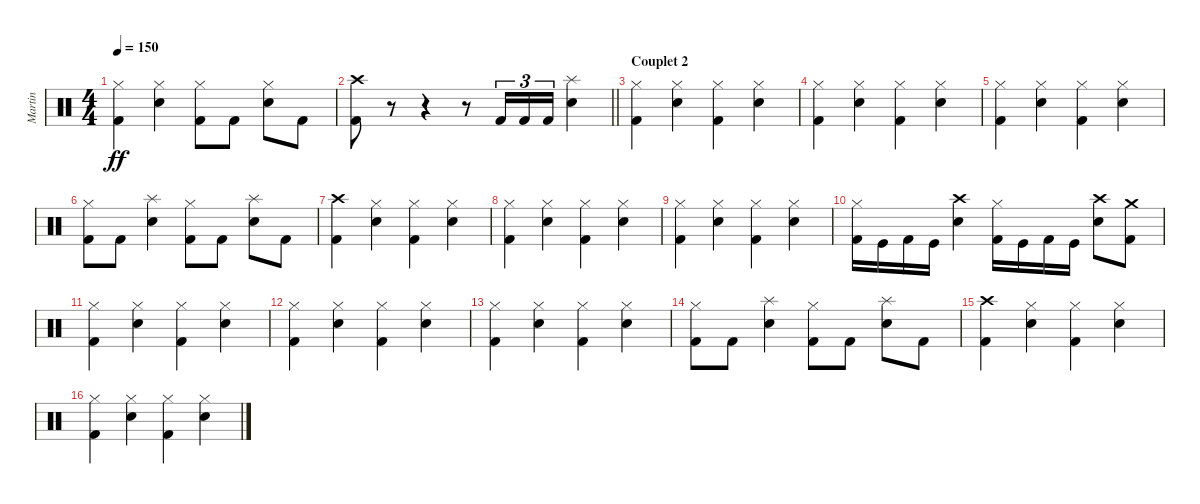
\track ("Martin" "Martin") {instrument percussion}
\staff {score}
\articulation defaults
\ts (4 4)
\tempo 150
\clef neutral
\ks c
("Hi-Hat (closed)" "Kick (hit) 2").4{dy ff} ("Hi-Hat (closed)" "Electric Snare (hit)").4 ("Hi-Hat (closed)" "Kick (hit) 2").8 "Kick (hit) 2".8 ("Hi-Hat (closed)" "Electric Snare (hit)").8 "Kick (hit) 2".8 |
\barLineRight lightlight
("Crash high (hit)" "Kick (hit) 2").8 r.8 r.4 r.8 "Kick (hit) 2".16{tu (3 2)} "Kick (hit) 2".16{tu (3 2)} "Kick (hit) 2".16{tu (3 2)} ("Splash (hit)" "Electric Snare (hit)").4 |
\section ("" "Couplet 2")
("Hi-Hat (closed)" "Kick (hit) 2").4 ("Hi-Hat (closed)" "Electric Snare (hit)").4 ("Hi-Hat (closed)" "Kick (hit) 2").4 ("Hi-Hat (closed)" "Electric Snare (hit)").4 |
("Hi-Hat (closed)" "Kick (hit) 2").4 ("Hi-Hat (closed)" "Electric Snare (hit)").4 ("Hi-Hat (closed)" "Kick (hit) 2").4 ("Hi-Hat (closed)" "Electric Snare (hit)").4 |
("Hi-Hat (closed)" "Kick (hit) 2").4 ("Hi-Hat (closed)" "Electric Snare (hit)").4 ("Hi-Hat (closed)" "Kick (hit) 2").4 ("Hi-Hat (closed)" "Electric Snare (hit)").4 |
("Hi-Hat (closed)" "Kick (hit) 2").8 "Kick (hit) 2".8 ("Splash (hit)" "Electric Snare (hit)").4 ("Hi-Hat (closed)" "Kick (hit) 2").8 "Kick (hit) 2".8 ("Splash (hit)" "Electric Snare (hit)").8 "Kick (hit) 2".8 |
("Crash high (hit)" "Kick (hit) 2").4 ("Hi-Hat (closed)" "Electric Snare (hit)").4 ("Hi-Hat (closed)" "Kick (hit) 2").4 ("Hi-Hat (closed)" "Electric Snare (hit)").4 |
("Hi-Hat (closed)" "Kick (hit) 2").4 ("Hi-Hat (closed)" "Electric Snare (hit)").4 ("Hi-Hat (closed)" "Kick (hit) 2").4 ("Hi-Hat (closed)" "Electric Snare (hit)").4 |
("Hi-Hat (closed)" "Kick (hit) 2").4 ("Hi-Hat (closed)" "Electric Snare (hit)").4 ("Hi-Hat (closed)" "Kick (hit) 2").4 ("Hi-Hat (closed)" "Electric Snare (hit)").4 |
("Hi-Hat (closed)" "Kick (hit) 2").16 "Kick (hit)".16 "Kick (hit) 2".16 "Kick (hit)".16 ("Crash high (hit)" "Electric Snare (hit)").4 ("Hi-Hat (closed)" "Kick (hit) 2").16 "Kick (hit)".16 "Kick (hit) 2".16 "Kick (hit)".16 ("Crash high (hit)" "Electric Snare (hit)").8 ("Crash medium (hit)" "Kick (hit) 2").8 |
("Hi-Hat (closed)" "Kick (hit) 2").4 ("Hi-Hat (closed)" "Electric Snare (hit)").4 ("Hi-Hat (closed)" "Kick (hit) 2").4 ("Hi-Hat (closed)" "Electric Snare (hit)").4 |
("Hi-Hat (closed)" "Kick (hit) 2").4 ("Hi-Hat (closed)" "Electric Snare (hit)").4 ("Hi-Hat (closed)" "Kick (hit) 2").4 ("Hi-Hat (closed)" "Electric Snare (hit)").4 |
("Hi-Hat (closed)" "Kick (hit) 2").4 ("Hi-Hat (closed)" "Electric Snare (hit)").4 ("Hi-Hat (closed)" "Kick (hit) 2").4 ("Hi-Hat (closed)" "Electric Snare (hit)").4 |
("Hi-Hat (closed)" "Kick (hit) 2").8 "Kick (hit) 2".8 ("Splash (hit)" "Electric Snare (hit)").4 ("Hi-Hat (closed)" "Kick (hit) 2").8 "Kick (hit) 2".8 ("Splash (hit)" "Electric Snare (hit)").8 "Kick (hit) 2".8 |
("Crash high (hit)" "Kick (hit) 2").4 ("Hi-Hat (closed)" "Electric Snare (hit)").4 ("Hi-Hat (closed)" "Kick (hit) 2").4 ("Hi-Hat (closed)" "Electric Snare (hit)").4 |
("Hi-Hat (closed)" "Kick (hit) 2").4 ("Hi-Hat (closed)" "Electric Snare (hit)").4 ("Hi-Hat (closed)" "Kick (hit) 2").4 ("Hi-Hat (closed)" "Electric Snare (hit)").4
